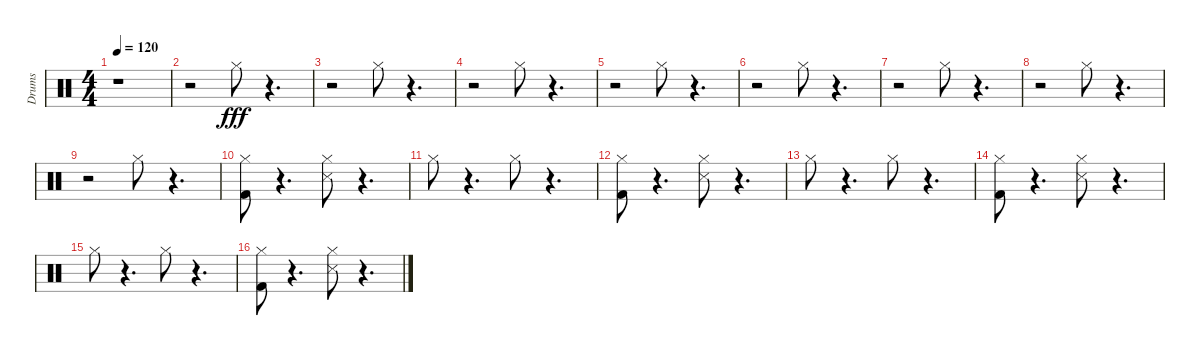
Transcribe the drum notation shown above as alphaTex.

\track ("Drums" "Drums") {instrument percussion}
\staff {score}
\articulation defaults
\ts (4 4)
\tempo 120
\clef neutral
\ks c
r.1{dy fff} |
r.2 "Hi-Hat (closed)".8 r.4{d} |
r.2 "Hi-Hat (closed)".8 r.4{d} |
r.2 "Hi-Hat (closed)".8 r.4{d} |
r.2 "Hi-Hat (closed)".8 r.4{d} |
r.2 "Hi-Hat (closed)".8 r.4{d} |
r.2 "Hi-Hat (closed)".8 r.4{d} |
r.2 "Hi-Hat (closed)".8 r.4{d} |
r.2 "Hi-Hat (closed)".8 r.4{d} |
("Hi-Hat (closed)" "Kick (hit) 2").8 r.4{d} ("Hi-Hat (closed)" "Snare (side stick) 3").8 r.4{d} |
"Hi-Hat (closed)".8 r.4{d} "Hi-Hat (closed)".8 r.4{d} |
("Hi-Hat (closed)" "Kick (hit) 2").8 r.4{d} ("Snare (side stick) 3" "Hi-Hat (closed)").8 r.4{d} |
"Hi-Hat (closed)".8 r.4{d} "Hi-Hat (closed)".8 r.4{d} |
("Hi-Hat (closed)" "Kick (hit) 2").8 r.4{d} ("Snare (side stick) 3" "Hi-Hat (closed)").8 r.4{d} |
"Hi-Hat (closed)".8 r.4{d} "Hi-Hat (closed)".8 r.4{d} |
("Hi-Hat (closed)" "Kick (hit) 2").8 r.4{d} ("Snare (side stick) 3" "Hi-Hat (closed)").8 r.4{d}
